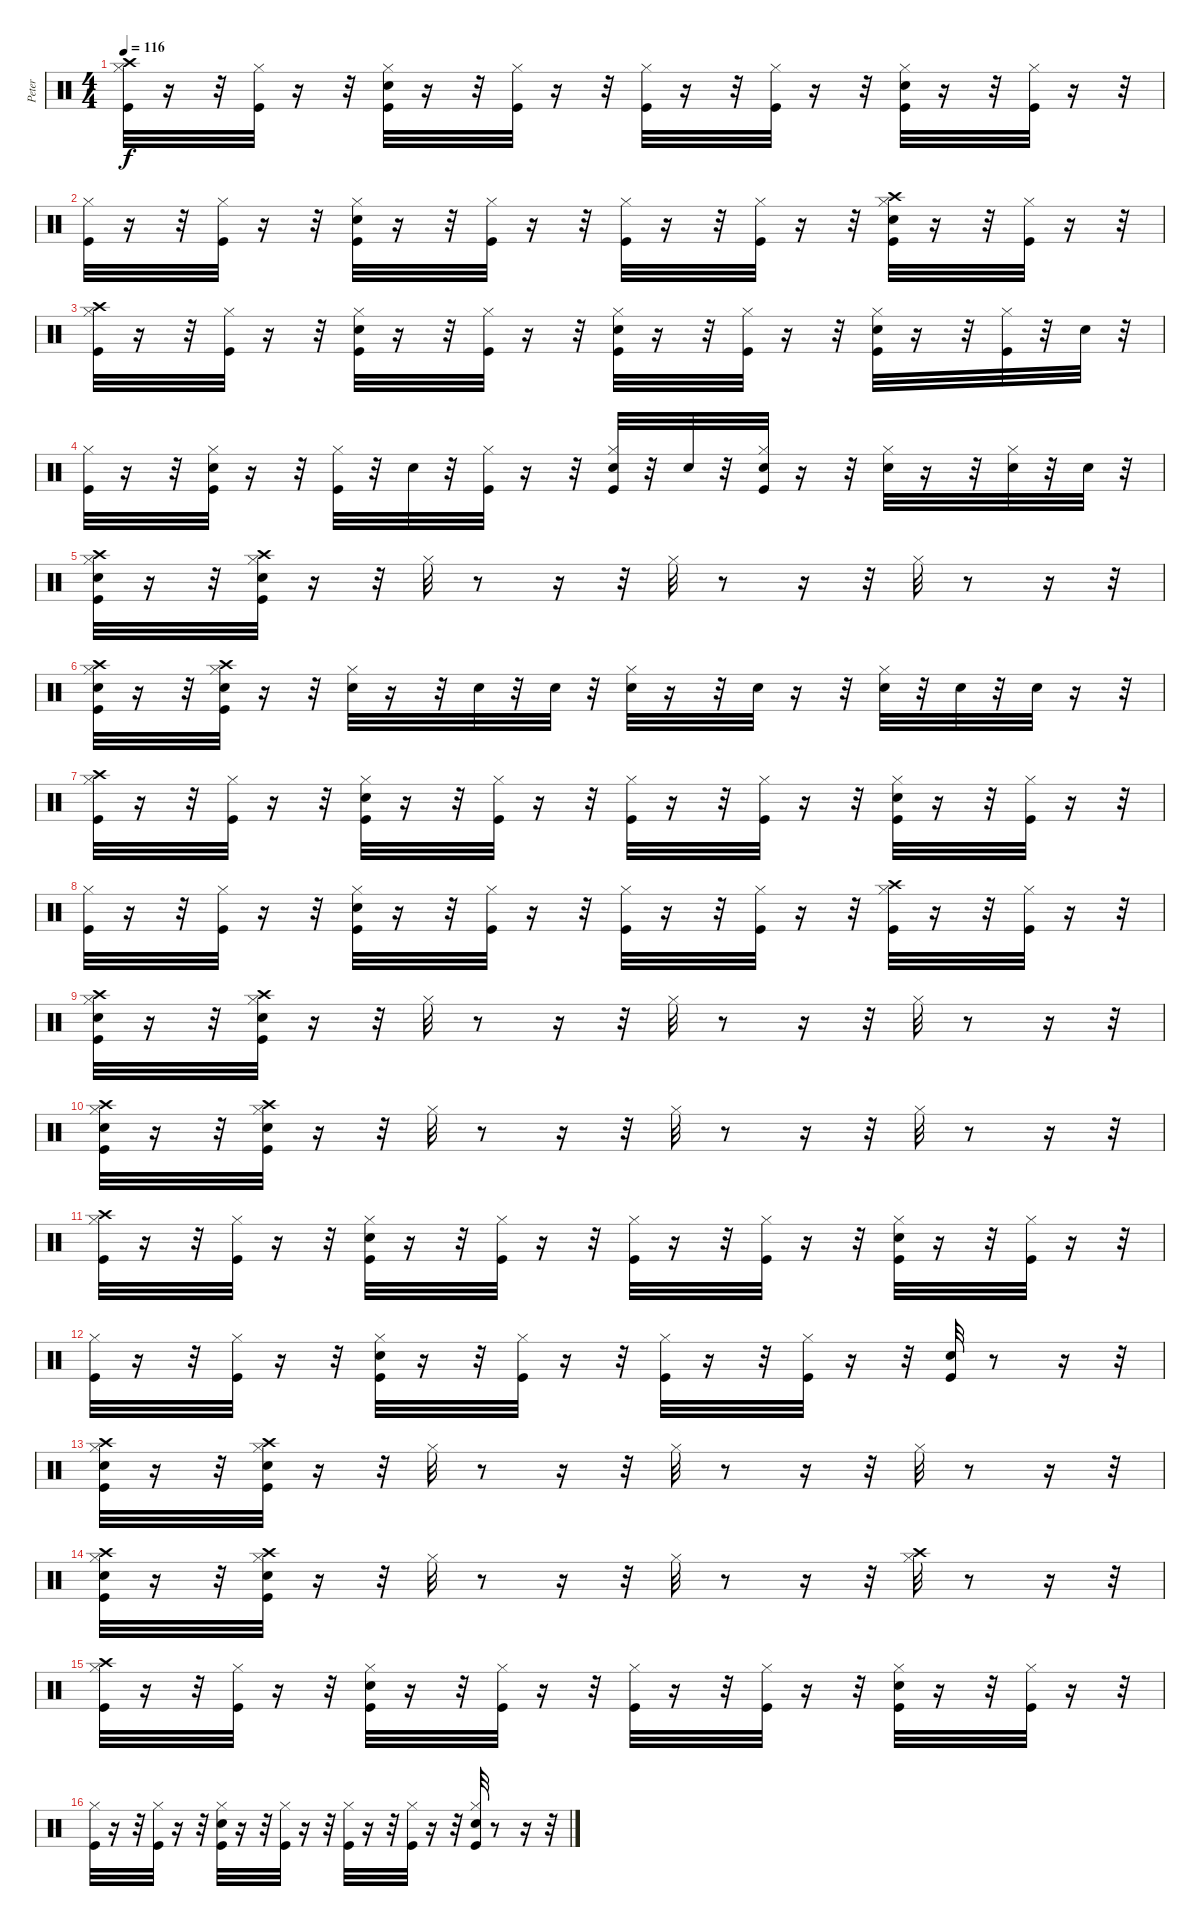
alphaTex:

\track ("Peter" "Peter") {instrument percussion}
\staff {score}
\articulation defaults
\ts (4 4)
\tempo 116
\clef neutral
\ks c
("Crash high (hit)" "Kick (hit)" "Hi-Hat (closed)").32{dy f} r.16 r.32 ("Hi-Hat (closed)" "Kick (hit)").32 r.16 r.32 ("Hi-Hat (closed)" "Snare (hit) 2" "Kick (hit)").32 r.16 r.32 ("Hi-Hat (closed)" "Kick (hit)").32 r.16 r.32 ("Hi-Hat (closed)" "Kick (hit)").32 r.16 r.32 ("Hi-Hat (closed)" "Kick (hit)").32 r.16 r.32 ("Hi-Hat (closed)" "Snare (hit) 2" "Kick (hit)").32 r.16 r.32 ("Hi-Hat (closed)" "Kick (hit)").32 r.16 r.32 |
("Hi-Hat (closed)" "Kick (hit)").32 r.16 r.32 ("Hi-Hat (closed)" "Kick (hit)").32 r.16 r.32 ("Hi-Hat (closed)" "Snare (hit) 2" "Kick (hit)").32 r.16 r.32 ("Hi-Hat (closed)" "Kick (hit)").32 r.16 r.32 ("Kick (hit)" "Hi-Hat (closed)").32 r.16 r.32 ("Kick (hit)" "Hi-Hat (closed)").32 r.16 r.32 ("Crash high (hit)" "Kick (hit)" "Snare (hit) 2" "Hi-Hat (closed)").32 r.16 r.32 ("Kick (hit)" "Hi-Hat (closed)").32 r.16 r.32 |
("Crash high (hit)" "Kick (hit)" "Hi-Hat (closed)").32 r.16 r.32 ("Kick (hit)" "Hi-Hat (closed)").32 r.16 r.32 ("Snare (hit) 2" "Kick (hit)" "Hi-Hat (closed)").32 r.16 r.32 ("Hi-Hat (closed)" "Kick (hit)").32 r.16 r.32 ("Hi-Hat (closed)" "Snare (hit) 2" "Kick (hit)").32 r.16 r.32 ("Hi-Hat (closed)" "Kick (hit)").32 r.16 r.32 ("Hi-Hat (closed)" "Snare (hit) 2" "Kick (hit)").32 r.16 r.32 ("Hi-Hat (closed)" "Kick (hit)").32 r.32 "Snare (hit) 2".32 r.32 |
("Kick (hit)" "Hi-Hat (closed)").32 r.16 r.32 ("Kick (hit)" "Hi-Hat (closed)" "Snare (hit) 2").32 r.16 r.32 ("Kick (hit)" "Hi-Hat (closed)").32 r.32 "Snare (hit) 2".32 r.32 ("Kick (hit)" "Hi-Hat (closed)").32 r.16 r.32 ("Snare (hit) 2" "Kick (hit)" "Hi-Hat (closed)").32 r.32 "Snare (hit) 2".32 r.32 ("Snare (hit) 2" "Kick (hit)" "Hi-Hat (closed)").32 r.16 r.32 ("Hi-Hat (closed)" "Snare (hit) 2").32 r.16 r.32 ("Hi-Hat (closed)" "Snare (hit) 2").32 r.32 "Snare (hit) 2".32 r.32 |
("Snare (hit) 2" "Hi-Hat (closed)" "Kick (hit)" "Crash high (hit)").32 r.16 r.32 ("Kick (hit)" "Snare (hit) 2" "Crash high (hit)" "Hi-Hat (closed)").32 r.16 r.32 "Hi-Hat (closed)".32 r.8 r.16 r.32 "Hi-Hat (closed)".32 r.8 r.16 r.32 "Hi-Hat (closed)".32 r.8 r.16 r.32 |
("Snare (hit) 2" "Kick (hit)" "Crash high (hit)" "Hi-Hat (closed)").32 r.16 r.32 ("Crash high (hit)" "Snare (hit) 2" "Kick (hit)" "Hi-Hat (closed)").32 r.16 r.32 ("Snare (hit) 2" "Hi-Hat (closed)").32 r.16 r.32 "Snare (hit) 2".32 r.32 "Snare (hit) 2".32 r.32 ("Snare (hit) 2" "Hi-Hat (closed)").32 r.16 r.32 "Snare (hit) 2".32 r.16 r.32 ("Snare (hit) 2" "Hi-Hat (closed)").32 r.32 "Snare (hit) 2".32 r.32 "Snare (hit) 2".32 r.16 r.32 |
("Crash high (hit)" "Kick (hit)" "Hi-Hat (closed)").32 r.16 r.32 ("Kick (hit)" "Hi-Hat (closed)").32 r.16 r.32 ("Snare (hit) 2" "Kick (hit)" "Hi-Hat (closed)").32 r.16 r.32 ("Kick (hit)" "Hi-Hat (closed)").32 r.16 r.32 ("Kick (hit)" "Hi-Hat (closed)").32 r.16 r.32 ("Kick (hit)" "Hi-Hat (closed)").32 r.16 r.32 ("Snare (hit) 2" "Kick (hit)" "Hi-Hat (closed)").32 r.16 r.32 ("Kick (hit)" "Hi-Hat (closed)").32 r.16 r.32 |
("Kick (hit)" "Hi-Hat (closed)").32 r.16 r.32 ("Kick (hit)" "Hi-Hat (closed)").32 r.16 r.32 ("Snare (hit) 2" "Kick (hit)" "Hi-Hat (closed)").32 r.16 r.32 ("Kick (hit)" "Hi-Hat (closed)").32 r.16 r.32 ("Kick (hit)" "Hi-Hat (closed)").32 r.16 r.32 ("Kick (hit)" "Hi-Hat (closed)").32 r.16 r.32 ("Crash high (hit)" "Kick (hit)" "Hi-Hat (closed)").32 r.16 r.32 ("Kick (hit)" "Hi-Hat (closed)").32 r.16 r.32 |
("Snare (hit) 2" "Crash high (hit)" "Kick (hit)" "Hi-Hat (closed)").32 r.16 r.32 ("Snare (hit) 2" "Crash high (hit)" "Kick (hit)" "Hi-Hat (closed)").32 r.16 r.32 "Hi-Hat (closed)".32 r.8 r.16 r.32 "Hi-Hat (closed)".32 r.8 r.16 r.32 "Hi-Hat (closed)".32 r.8 r.16 r.32 |
("Snare (hit) 2" "Kick (hit)" "Crash high (hit)" "Hi-Hat (closed)").32 r.16 r.32 ("Kick (hit)" "Snare (hit) 2" "Crash high (hit)" "Hi-Hat (closed)").32 r.16 r.32 "Hi-Hat (closed)".32 r.8 r.16 r.32 "Hi-Hat (closed)".32 r.8 r.16 r.32 "Hi-Hat (closed)".32 r.8 r.16 r.32 |
("Crash high (hit)" "Kick (hit)" "Hi-Hat (closed)").32 r.16 r.32 ("Hi-Hat (closed)" "Kick (hit)").32 r.16 r.32 ("Snare (hit) 2" "Kick (hit)" "Hi-Hat (closed)").32 r.16 r.32 ("Hi-Hat (closed)" "Kick (hit)").32 r.16 r.32 ("Kick (hit)" "Hi-Hat (closed)").32 r.16 r.32 ("Hi-Hat (closed)" "Kick (hit)").32 r.16 r.32 ("Snare (hit) 2" "Hi-Hat (closed)" "Kick (hit)").32 r.16 r.32 ("Hi-Hat (closed)" "Kick (hit)").32 r.16 r.32 |
("Hi-Hat (closed)" "Kick (hit)").32 r.16 r.32 ("Hi-Hat (closed)" "Kick (hit)").32 r.16 r.32 ("Snare (hit) 2" "Hi-Hat (closed)" "Kick (hit)").32 r.16 r.32 ("Hi-Hat (closed)" "Kick (hit)").32 r.16 r.32 ("Hi-Hat (closed)" "Kick (hit)").32 r.16 r.32 ("Hi-Hat (closed)" "Kick (hit)").32 r.16 r.32 ("Snare (hit) 2" "Kick (hit)").32 r.8 r.16 r.32 |
("Kick (hit)" "Snare (hit) 2" "Hi-Hat (closed)" "Crash high (hit)").32 r.16 r.32 ("Kick (hit)" "Snare (hit) 2" "Hi-Hat (closed)" "Crash high (hit)").32 r.16 r.32 "Hi-Hat (closed)".32 r.8 r.16 r.32 "Hi-Hat (closed)".32 r.8 r.16 r.32 "Hi-Hat (closed)".32 r.8 r.16 r.32 |
("Kick (hit)" "Snare (hit) 2" "Crash high (hit)" "Hi-Hat (closed)").32 r.16 r.32 ("Kick (hit)" "Snare (hit) 2" "Hi-Hat (closed)" "Crash high (hit)").32 r.16 r.32 "Hi-Hat (closed)".32 r.8 r.16 r.32 "Hi-Hat (closed)".32 r.8 r.16 r.32 ("Crash high (hit)" "Hi-Hat (closed)").32 r.8 r.16 r.32 |
("Crash high (hit)" "Kick (hit)" "Hi-Hat (closed)").32 r.16 r.32 ("Kick (hit)" "Hi-Hat (closed)").32 r.16 r.32 ("Snare (hit) 2" "Kick (hit)" "Hi-Hat (closed)").32 r.16 r.32 ("Kick (hit)" "Hi-Hat (closed)").32 r.16 r.32 ("Kick (hit)" "Hi-Hat (closed)").32 r.16 r.32 ("Kick (hit)" "Hi-Hat (closed)").32 r.16 r.32 ("Snare (hit) 2" "Kick (hit)" "Hi-Hat (closed)").32 r.16 r.32 ("Kick (hit)" "Hi-Hat (closed)").32 r.16 r.32 |
("Kick (hit)" "Hi-Hat (closed)").32 r.16 r.32 ("Kick (hit)" "Hi-Hat (closed)").32 r.16 r.32 ("Snare (hit) 2" "Kick (hit)" "Hi-Hat (closed)").32 r.16 r.32 ("Kick (hit)" "Hi-Hat (closed)").32 r.16 r.32 ("Hi-Hat (closed)" "Kick (hit)").32 r.16 r.32 ("Hi-Hat (closed)" "Kick (hit)").32 r.16 r.32 ("Hi-Hat (closed)" "Kick (hit)" "Snare (hit) 2").32 r.8 r.16 r.32
